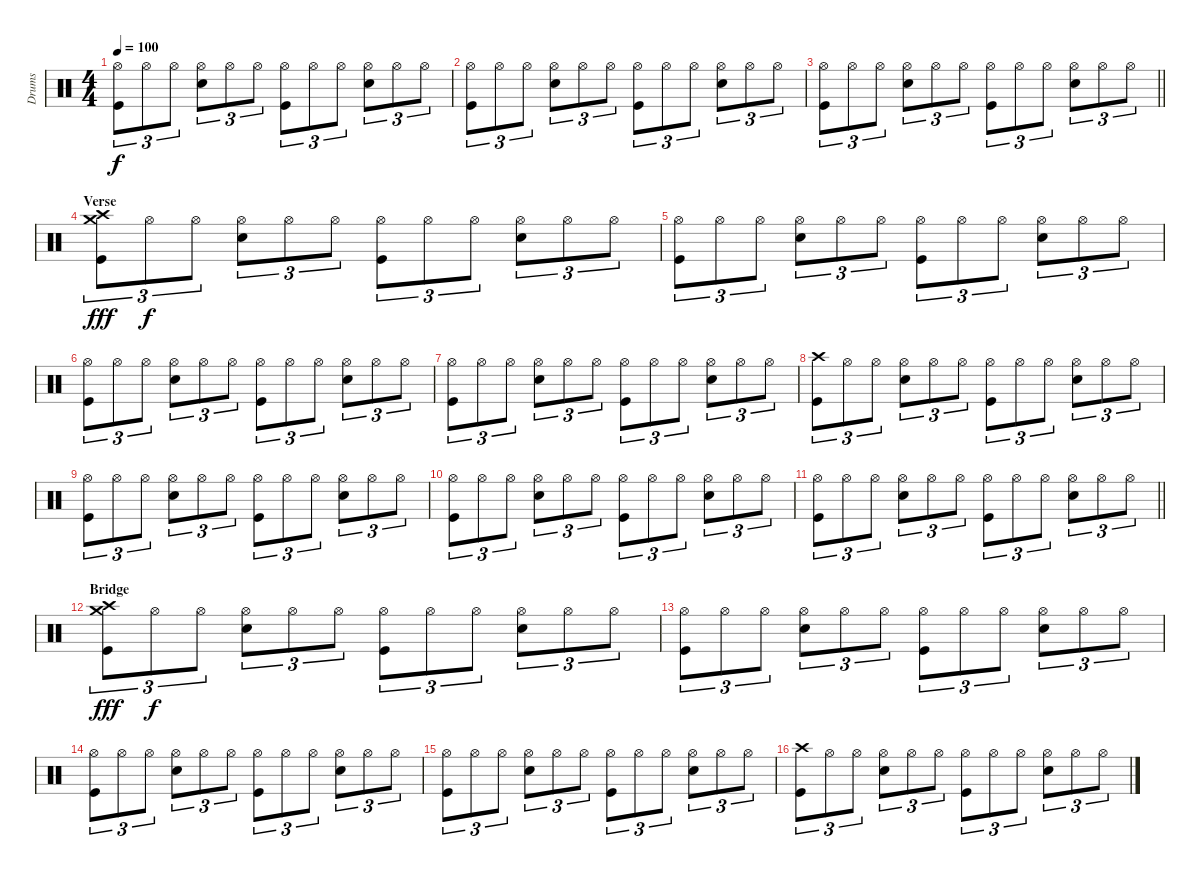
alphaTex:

\track ("Drums" "Drums") {instrument percussion}
\staff {score}
\articulation defaults
\ts (4 4)
\tempo 100
\clef neutral
\ks c
("Hi-Hat (open)" "Kick (hit)").8{tu (3 2) dy f} "Hi-Hat (open)".8{tu (3 2)} "Hi-Hat (open)".8{tu (3 2)} ("Hi-Hat (open)" "Snare (hit) 2").8{tu (3 2)} "Hi-Hat (open)".8{tu (3 2)} "Hi-Hat (open)".8{tu (3 2)} ("Hi-Hat (open)" "Kick (hit)").8{tu (3 2)} "Hi-Hat (open)".8{tu (3 2)} "Hi-Hat (open)".8{tu (3 2)} ("Hi-Hat (open)" "Snare (hit) 2").8{tu (3 2)} "Hi-Hat (open)".8{tu (3 2)} "Hi-Hat (open)".8{tu (3 2)} |
("Hi-Hat (open)" "Kick (hit)").8{tu (3 2)} "Hi-Hat (open)".8{tu (3 2)} "Hi-Hat (open)".8{tu (3 2)} ("Hi-Hat (open)" "Snare (hit) 2").8{tu (3 2)} "Hi-Hat (open)".8{tu (3 2)} "Hi-Hat (open)".8{tu (3 2)} ("Hi-Hat (open)" "Kick (hit)").8{tu (3 2)} "Hi-Hat (open)".8{tu (3 2)} "Hi-Hat (open)".8{tu (3 2)} ("Hi-Hat (open)" "Snare (hit) 2").8{tu (3 2)} "Hi-Hat (open)".8{tu (3 2)} "Hi-Hat (open)".8{tu (3 2)} |
\barLineRight lightlight
("Hi-Hat (open)" "Kick (hit)").8{tu (3 2)} "Hi-Hat (open)".8{tu (3 2)} "Hi-Hat (open)".8{tu (3 2)} ("Hi-Hat (open)" "Snare (hit) 2").8{tu (3 2)} "Hi-Hat (open)".8{tu (3 2)} "Hi-Hat (open)".8{tu (3 2)} ("Hi-Hat (open)" "Kick (hit)").8{tu (3 2)} "Hi-Hat (open)".8{tu (3 2)} "Hi-Hat (open)".8{tu (3 2)} ("Hi-Hat (open)" "Snare (hit) 2").8{tu (3 2)} "Hi-Hat (open)".8{tu (3 2)} "Hi-Hat (open)".8{tu (3 2)} |
\section ("" "Verse")
("Crash high (hit)" "Crash medium (hit)" "Kick (hit)").8{tu (3 2) dy fff} "Hi-Hat (open)".8{tu (3 2) dy f} "Hi-Hat (open)".8{tu (3 2)} ("Hi-Hat (open)" "Snare (hit) 2").8{tu (3 2)} "Hi-Hat (open)".8{tu (3 2)} "Hi-Hat (open)".8{tu (3 2)} ("Hi-Hat (open)" "Kick (hit)").8{tu (3 2)} "Hi-Hat (open)".8{tu (3 2)} "Hi-Hat (open)".8{tu (3 2)} ("Hi-Hat (open)" "Snare (hit) 2").8{tu (3 2)} "Hi-Hat (open)".8{tu (3 2)} "Hi-Hat (open)".8{tu (3 2)} |
("Hi-Hat (open)" "Kick (hit)").8{tu (3 2)} "Hi-Hat (open)".8{tu (3 2)} "Hi-Hat (open)".8{tu (3 2)} ("Hi-Hat (open)" "Snare (hit) 2").8{tu (3 2)} "Hi-Hat (open)".8{tu (3 2)} "Hi-Hat (open)".8{tu (3 2)} ("Hi-Hat (open)" "Kick (hit)").8{tu (3 2)} "Hi-Hat (open)".8{tu (3 2)} "Hi-Hat (open)".8{tu (3 2)} ("Hi-Hat (open)" "Snare (hit) 2").8{tu (3 2)} "Hi-Hat (open)".8{tu (3 2)} "Hi-Hat (open)".8{tu (3 2)} |
("Hi-Hat (open)" "Kick (hit)").8{tu (3 2)} "Hi-Hat (open)".8{tu (3 2)} "Hi-Hat (open)".8{tu (3 2)} ("Hi-Hat (open)" "Snare (hit) 2").8{tu (3 2)} "Hi-Hat (open)".8{tu (3 2)} "Hi-Hat (open)".8{tu (3 2)} ("Hi-Hat (open)" "Kick (hit)").8{tu (3 2)} "Hi-Hat (open)".8{tu (3 2)} "Hi-Hat (open)".8{tu (3 2)} ("Hi-Hat (open)" "Snare (hit) 2").8{tu (3 2)} "Hi-Hat (open)".8{tu (3 2)} "Hi-Hat (open)".8{tu (3 2)} |
("Hi-Hat (open)" "Kick (hit)").8{tu (3 2)} "Hi-Hat (open)".8{tu (3 2)} "Hi-Hat (open)".8{tu (3 2)} ("Hi-Hat (open)" "Snare (hit) 2").8{tu (3 2)} "Hi-Hat (open)".8{tu (3 2)} "Hi-Hat (open)".8{tu (3 2)} ("Hi-Hat (open)" "Kick (hit)").8{tu (3 2)} "Hi-Hat (open)".8{tu (3 2)} "Hi-Hat (open)".8{tu (3 2)} ("Hi-Hat (open)" "Snare (hit) 2").8{tu (3 2)} "Hi-Hat (open)".8{tu (3 2)} "Hi-Hat (open)".8{tu (3 2)} |
("Crash high (hit)" "Kick (hit)").8{tu (3 2)} "Hi-Hat (open)".8{tu (3 2)} "Hi-Hat (open)".8{tu (3 2)} ("Hi-Hat (open)" "Snare (hit) 2").8{tu (3 2)} "Hi-Hat (open)".8{tu (3 2)} "Hi-Hat (open)".8{tu (3 2)} ("Hi-Hat (open)" "Kick (hit)").8{tu (3 2)} "Hi-Hat (open)".8{tu (3 2)} "Hi-Hat (open)".8{tu (3 2)} ("Hi-Hat (open)" "Snare (hit) 2").8{tu (3 2)} "Hi-Hat (open)".8{tu (3 2)} "Hi-Hat (open)".8{tu (3 2)} |
("Hi-Hat (open)" "Kick (hit)").8{tu (3 2)} "Hi-Hat (open)".8{tu (3 2)} "Hi-Hat (open)".8{tu (3 2)} ("Hi-Hat (open)" "Snare (hit) 2").8{tu (3 2)} "Hi-Hat (open)".8{tu (3 2)} "Hi-Hat (open)".8{tu (3 2)} ("Hi-Hat (open)" "Kick (hit)").8{tu (3 2)} "Hi-Hat (open)".8{tu (3 2)} "Hi-Hat (open)".8{tu (3 2)} ("Hi-Hat (open)" "Snare (hit) 2").8{tu (3 2)} "Hi-Hat (open)".8{tu (3 2)} "Hi-Hat (open)".8{tu (3 2)} |
("Hi-Hat (open)" "Kick (hit)").8{tu (3 2)} "Hi-Hat (open)".8{tu (3 2)} "Hi-Hat (open)".8{tu (3 2)} ("Hi-Hat (open)" "Snare (hit) 2").8{tu (3 2)} "Hi-Hat (open)".8{tu (3 2)} "Hi-Hat (open)".8{tu (3 2)} ("Hi-Hat (open)" "Kick (hit)").8{tu (3 2)} "Hi-Hat (open)".8{tu (3 2)} "Hi-Hat (open)".8{tu (3 2)} ("Hi-Hat (open)" "Snare (hit) 2").8{tu (3 2)} "Hi-Hat (open)".8{tu (3 2)} "Hi-Hat (open)".8{tu (3 2)} |
\barLineRight lightlight
("Hi-Hat (open)" "Kick (hit)").8{tu (3 2)} "Hi-Hat (open)".8{tu (3 2)} "Hi-Hat (open)".8{tu (3 2)} ("Hi-Hat (open)" "Snare (hit) 2").8{tu (3 2)} "Hi-Hat (open)".8{tu (3 2)} "Hi-Hat (open)".8{tu (3 2)} ("Hi-Hat (open)" "Kick (hit)").8{tu (3 2)} "Hi-Hat (open)".8{tu (3 2)} "Hi-Hat (open)".8{tu (3 2)} ("Hi-Hat (open)" "Snare (hit) 2").8{tu (3 2)} "Hi-Hat (open)".8{tu (3 2)} "Hi-Hat (open)".8{tu (3 2)} |
\section ("" "Bridge")
("Crash high (hit)" "Crash medium (hit)" "Kick (hit)").8{tu (3 2) dy fff} "Hi-Hat (open)".8{tu (3 2) dy f} "Hi-Hat (open)".8{tu (3 2)} ("Hi-Hat (open)" "Snare (hit) 2").8{tu (3 2)} "Hi-Hat (open)".8{tu (3 2)} "Hi-Hat (open)".8{tu (3 2)} ("Hi-Hat (open)" "Kick (hit)").8{tu (3 2)} "Hi-Hat (open)".8{tu (3 2)} "Hi-Hat (open)".8{tu (3 2)} ("Hi-Hat (open)" "Snare (hit) 2").8{tu (3 2)} "Hi-Hat (open)".8{tu (3 2)} "Hi-Hat (open)".8{tu (3 2)} |
("Hi-Hat (open)" "Kick (hit)").8{tu (3 2)} "Hi-Hat (open)".8{tu (3 2)} "Hi-Hat (open)".8{tu (3 2)} ("Hi-Hat (open)" "Snare (hit) 2").8{tu (3 2)} "Hi-Hat (open)".8{tu (3 2)} "Hi-Hat (open)".8{tu (3 2)} ("Hi-Hat (open)" "Kick (hit)").8{tu (3 2)} "Hi-Hat (open)".8{tu (3 2)} "Hi-Hat (open)".8{tu (3 2)} ("Hi-Hat (open)" "Snare (hit) 2").8{tu (3 2)} "Hi-Hat (open)".8{tu (3 2)} "Hi-Hat (open)".8{tu (3 2)} |
("Hi-Hat (open)" "Kick (hit)").8{tu (3 2)} "Hi-Hat (open)".8{tu (3 2)} "Hi-Hat (open)".8{tu (3 2)} ("Hi-Hat (open)" "Snare (hit) 2").8{tu (3 2)} "Hi-Hat (open)".8{tu (3 2)} "Hi-Hat (open)".8{tu (3 2)} ("Hi-Hat (open)" "Kick (hit)").8{tu (3 2)} "Hi-Hat (open)".8{tu (3 2)} "Hi-Hat (open)".8{tu (3 2)} ("Hi-Hat (open)" "Snare (hit) 2").8{tu (3 2)} "Hi-Hat (open)".8{tu (3 2)} "Hi-Hat (open)".8{tu (3 2)} |
("Hi-Hat (open)" "Kick (hit)").8{tu (3 2)} "Hi-Hat (open)".8{tu (3 2)} "Hi-Hat (open)".8{tu (3 2)} ("Hi-Hat (open)" "Snare (hit) 2").8{tu (3 2)} "Hi-Hat (open)".8{tu (3 2)} "Hi-Hat (open)".8{tu (3 2)} ("Hi-Hat (open)" "Kick (hit)").8{tu (3 2)} "Hi-Hat (open)".8{tu (3 2)} "Hi-Hat (open)".8{tu (3 2)} ("Hi-Hat (open)" "Snare (hit) 2").8{tu (3 2)} "Hi-Hat (open)".8{tu (3 2)} "Hi-Hat (open)".8{tu (3 2)} |
("Crash high (hit)" "Kick (hit)").8{tu (3 2)} "Hi-Hat (open)".8{tu (3 2)} "Hi-Hat (open)".8{tu (3 2)} ("Hi-Hat (open)" "Snare (hit) 2").8{tu (3 2)} "Hi-Hat (open)".8{tu (3 2)} "Hi-Hat (open)".8{tu (3 2)} ("Hi-Hat (open)" "Kick (hit)").8{tu (3 2)} "Hi-Hat (open)".8{tu (3 2)} "Hi-Hat (open)".8{tu (3 2)} ("Hi-Hat (open)" "Snare (hit) 2").8{tu (3 2)} "Hi-Hat (open)".8{tu (3 2)} "Hi-Hat (open)".8{tu (3 2)}
